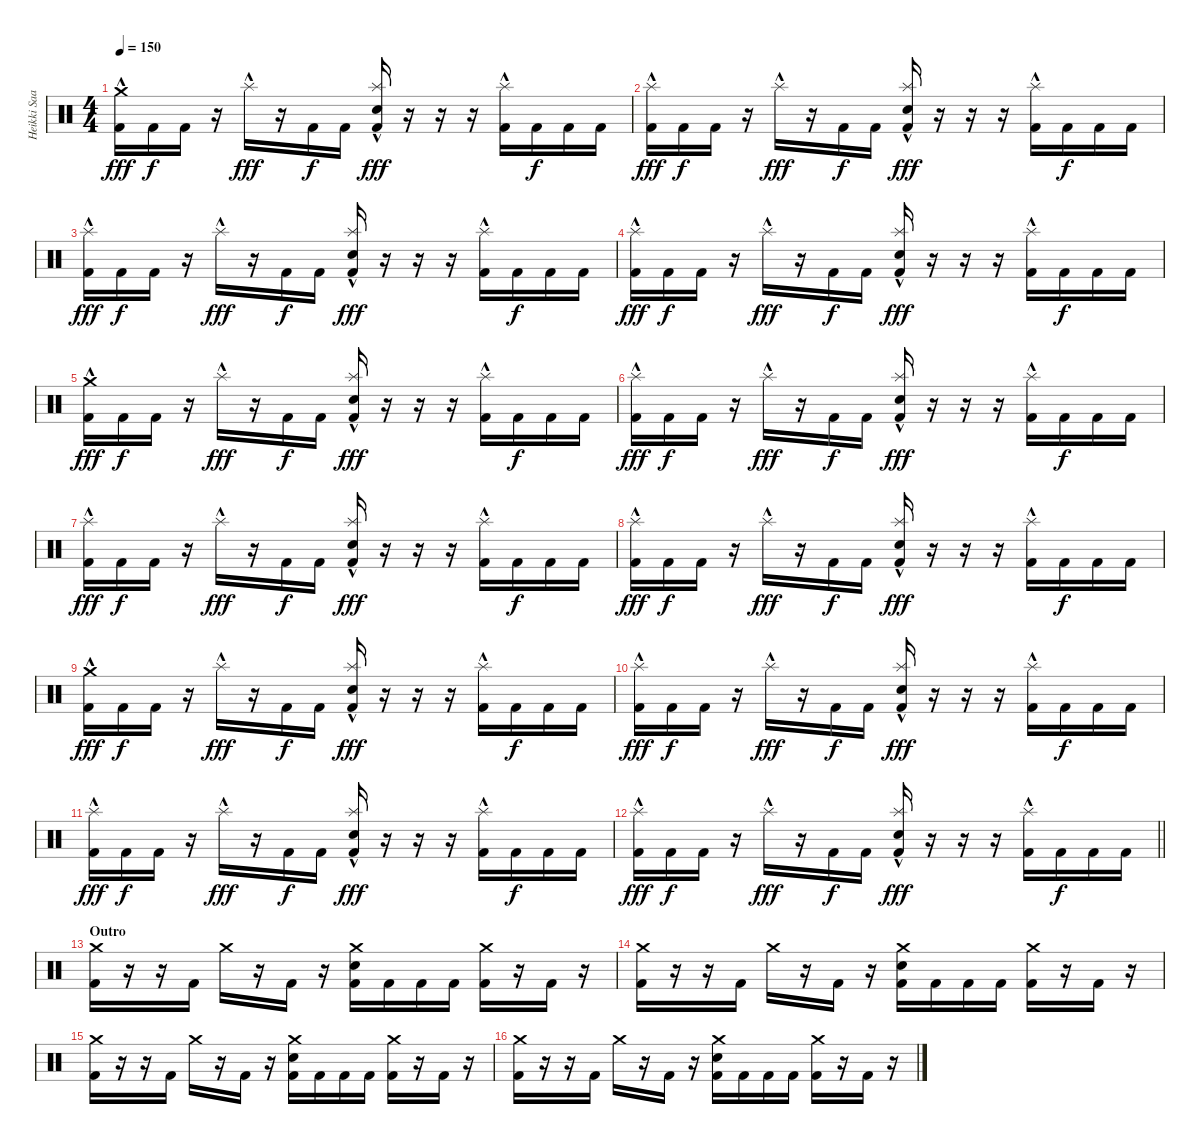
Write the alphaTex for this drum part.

\track ("Heikki Saari" "Heikki Saa") {instrument percussion}
\staff {score}
\articulation defaults
\ts (4 4)
\tempo 150
\clef neutral
\ks c
("Crash medium (hit)"{hac} "Kick (hit) 2").16{dy fff} "Kick (hit) 2".16{dy f} "Kick (hit) 2".16 r.16 "Splash (hit)"{hac}.16{dy fff} r.16 "Kick (hit) 2".16{dy f} "Kick (hit) 2".16 ("Splash (hit)"{hac} "Electric Snare (hit)" "Kick (hit) 2").16{dy fff} r.16 r.16 r.16 ("Splash (hit)"{hac} "Kick (hit) 2").16 "Kick (hit) 2".16{dy f} "Kick (hit) 2".16 "Kick (hit) 2".16 |
("Splash (hit)"{hac} "Kick (hit) 2").16{dy fff} "Kick (hit) 2".16{dy f} "Kick (hit) 2".16 r.16 "Splash (hit)"{hac}.16{dy fff} r.16 "Kick (hit) 2".16{dy f} "Kick (hit) 2".16 ("Splash (hit)"{hac} "Electric Snare (hit)" "Kick (hit) 2").16{dy fff} r.16 r.16 r.16 ("Splash (hit)"{hac} "Kick (hit) 2").16 "Kick (hit) 2".16{dy f} "Kick (hit) 2".16 "Kick (hit) 2".16 |
("Splash (hit)"{hac} "Kick (hit) 2").16{dy fff} "Kick (hit) 2".16{dy f} "Kick (hit) 2".16 r.16 "Splash (hit)"{hac}.16{dy fff} r.16 "Kick (hit) 2".16{dy f} "Kick (hit) 2".16 ("Splash (hit)"{hac} "Electric Snare (hit)" "Kick (hit) 2").16{dy fff} r.16 r.16 r.16 ("Splash (hit)"{hac} "Kick (hit) 2").16 "Kick (hit) 2".16{dy f} "Kick (hit) 2".16 "Kick (hit) 2".16 |
("Splash (hit)"{hac} "Kick (hit) 2").16{dy fff} "Kick (hit) 2".16{dy f} "Kick (hit) 2".16 r.16 "Splash (hit)"{hac}.16{dy fff} r.16 "Kick (hit) 2".16{dy f} "Kick (hit) 2".16 ("Splash (hit)"{hac} "Electric Snare (hit)" "Kick (hit) 2").16{dy fff} r.16 r.16 r.16 ("Splash (hit)"{hac} "Kick (hit) 2").16 "Kick (hit) 2".16{dy f} "Kick (hit) 2".16 "Kick (hit) 2".16 |
("Crash medium (hit)"{hac} "Kick (hit) 2").16{dy fff} "Kick (hit) 2".16{dy f} "Kick (hit) 2".16 r.16 "Splash (hit)"{hac}.16{dy fff} r.16 "Kick (hit) 2".16{dy f} "Kick (hit) 2".16 ("Splash (hit)"{hac} "Electric Snare (hit)" "Kick (hit) 2").16{dy fff} r.16 r.16 r.16 ("Splash (hit)"{hac} "Kick (hit) 2").16 "Kick (hit) 2".16{dy f} "Kick (hit) 2".16 "Kick (hit) 2".16 |
("Splash (hit)"{hac} "Kick (hit) 2").16{dy fff} "Kick (hit) 2".16{dy f} "Kick (hit) 2".16 r.16 "Splash (hit)"{hac}.16{dy fff} r.16 "Kick (hit) 2".16{dy f} "Kick (hit) 2".16 ("Splash (hit)"{hac} "Electric Snare (hit)" "Kick (hit) 2").16{dy fff} r.16 r.16 r.16 ("Splash (hit)"{hac} "Kick (hit) 2").16 "Kick (hit) 2".16{dy f} "Kick (hit) 2".16 "Kick (hit) 2".16 |
("Splash (hit)"{hac} "Kick (hit) 2").16{dy fff} "Kick (hit) 2".16{dy f} "Kick (hit) 2".16 r.16 "Splash (hit)"{hac}.16{dy fff} r.16 "Kick (hit) 2".16{dy f} "Kick (hit) 2".16 ("Splash (hit)"{hac} "Electric Snare (hit)" "Kick (hit) 2").16{dy fff} r.16 r.16 r.16 ("Splash (hit)"{hac} "Kick (hit) 2").16 "Kick (hit) 2".16{dy f} "Kick (hit) 2".16 "Kick (hit) 2".16 |
("Splash (hit)"{hac} "Kick (hit) 2").16{dy fff} "Kick (hit) 2".16{dy f} "Kick (hit) 2".16 r.16 "Splash (hit)"{hac}.16{dy fff} r.16 "Kick (hit) 2".16{dy f} "Kick (hit) 2".16 ("Splash (hit)"{hac} "Electric Snare (hit)" "Kick (hit) 2").16{dy fff} r.16 r.16 r.16 ("Splash (hit)"{hac} "Kick (hit) 2").16 "Kick (hit) 2".16{dy f} "Kick (hit) 2".16 "Kick (hit) 2".16 |
("Crash medium (hit)"{hac} "Kick (hit) 2").16{dy fff} "Kick (hit) 2".16{dy f} "Kick (hit) 2".16 r.16 "Splash (hit)"{hac}.16{dy fff} r.16 "Kick (hit) 2".16{dy f} "Kick (hit) 2".16 ("Splash (hit)"{hac} "Electric Snare (hit)" "Kick (hit) 2").16{dy fff} r.16 r.16 r.16 ("Splash (hit)"{hac} "Kick (hit) 2").16 "Kick (hit) 2".16{dy f} "Kick (hit) 2".16 "Kick (hit) 2".16 |
("Splash (hit)"{hac} "Kick (hit) 2").16{dy fff} "Kick (hit) 2".16{dy f} "Kick (hit) 2".16 r.16 "Splash (hit)"{hac}.16{dy fff} r.16 "Kick (hit) 2".16{dy f} "Kick (hit) 2".16 ("Splash (hit)"{hac} "Electric Snare (hit)" "Kick (hit) 2").16{dy fff} r.16 r.16 r.16 ("Splash (hit)"{hac} "Kick (hit) 2").16 "Kick (hit) 2".16{dy f} "Kick (hit) 2".16 "Kick (hit) 2".16 |
("Splash (hit)"{hac} "Kick (hit) 2").16{dy fff} "Kick (hit) 2".16{dy f} "Kick (hit) 2".16 r.16 "Splash (hit)"{hac}.16{dy fff} r.16 "Kick (hit) 2".16{dy f} "Kick (hit) 2".16 ("Splash (hit)"{hac} "Electric Snare (hit)" "Kick (hit) 2").16{dy fff} r.16 r.16 r.16 ("Splash (hit)"{hac} "Kick (hit) 2").16 "Kick (hit) 2".16{dy f} "Kick (hit) 2".16 "Kick (hit) 2".16 |
\barLineRight lightlight
("Splash (hit)"{hac} "Kick (hit) 2").16{dy fff} "Kick (hit) 2".16{dy f} "Kick (hit) 2".16 r.16 "Splash (hit)"{hac}.16{dy fff} r.16 "Kick (hit) 2".16{dy f} "Kick (hit) 2".16 ("Splash (hit)"{hac} "Electric Snare (hit)" "Kick (hit) 2").16{dy fff} r.16 r.16 r.16 ("Splash (hit)"{hac} "Kick (hit) 2").16 "Kick (hit) 2".16{dy f} "Kick (hit) 2".16 "Kick (hit) 2".16 |
\section ("" "Outro")
("Crash medium (hit)" "Kick (hit) 2").16 r.16 r.16 "Kick (hit) 2".16 "Crash medium (hit)".16 r.16 "Kick (hit) 2".16 r.16 ("Crash medium (hit)" "Electric Snare (hit)" "Kick (hit) 2").16 "Kick (hit) 2".16 "Kick (hit) 2".16 "Kick (hit) 2".16 ("Crash medium (hit)" "Kick (hit) 2").16 r.16 "Kick (hit) 2".16 r.16 |
("Crash medium (hit)" "Kick (hit) 2").16 r.16 r.16 "Kick (hit) 2".16 "Crash medium (hit)".16 r.16 "Kick (hit) 2".16 r.16 ("Crash medium (hit)" "Electric Snare (hit)" "Kick (hit) 2").16 "Kick (hit) 2".16 "Kick (hit) 2".16 "Kick (hit) 2".16 ("Crash medium (hit)" "Kick (hit) 2").16 r.16 "Kick (hit) 2".16 r.16 |
("Crash medium (hit)" "Kick (hit) 2").16 r.16 r.16 "Kick (hit) 2".16 "Crash medium (hit)".16 r.16 "Kick (hit) 2".16 r.16 ("Crash medium (hit)" "Electric Snare (hit)" "Kick (hit) 2").16 "Kick (hit) 2".16 "Kick (hit) 2".16 "Kick (hit) 2".16 ("Crash medium (hit)" "Kick (hit) 2").16 r.16 "Kick (hit) 2".16 r.16 |
("Crash medium (hit)" "Kick (hit) 2").16 r.16 r.16 "Kick (hit) 2".16 "Crash medium (hit)".16 r.16 "Kick (hit) 2".16 r.16 ("Crash medium (hit)" "Electric Snare (hit)" "Kick (hit) 2").16 "Kick (hit) 2".16 "Kick (hit) 2".16 "Kick (hit) 2".16 ("Crash medium (hit)" "Kick (hit) 2").16 r.16 "Kick (hit) 2".16 r.16
